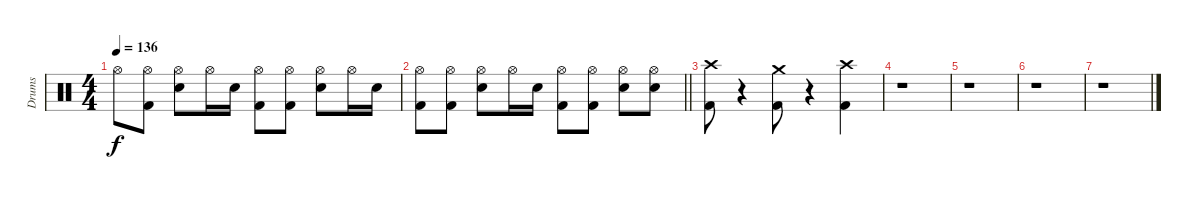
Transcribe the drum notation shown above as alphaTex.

\track ("Drums" "Drums") {instrument percussion}
\staff {score}
\articulation defaults
\ts (4 4)
\tempo 136
\clef neutral
\ks c "Hi-Hat (open)".8{dy f}
("Hi-Hat (open)" "Kick (hit) 2").8 ("Hi-Hat (open)" "Snare (hit) 2").8 "Hi-Hat (open)".16 "Snare (hit) 2".16 ("Hi-Hat (open)" "Kick (hit) 2").8 ("Hi-Hat (open)" "Kick (hit) 2").8 ("Hi-Hat (open)" "Snare (hit) 2").8 "Hi-Hat (open)".16 "Snare (hit) 2".16 |
\barLineRight lightlight
("Hi-Hat (open)" "Kick (hit) 2").8 ("Hi-Hat (open)" "Kick (hit) 2").8 ("Hi-Hat (open)" "Snare (hit) 2").8 "Hi-Hat (open)".16 "Snare (hit) 2".16 ("Hi-Hat (open)" "Kick (hit) 2").8 ("Hi-Hat (open)" "Kick (hit) 2").8 ("Hi-Hat (open)" "Snare (hit) 2").8 ("Hi-Hat (open)" "Snare (hit) 2").8 |
\section ("" "")
("Crash high (hit)" "Kick (hit) 2").8 r.4 ("Crash medium (hit)" "Kick (hit) 2").8 r.4 ("Crash high (hit)" "Kick (hit) 2").4 |
r.1 |
r.1 |
r.1 |
r.1
